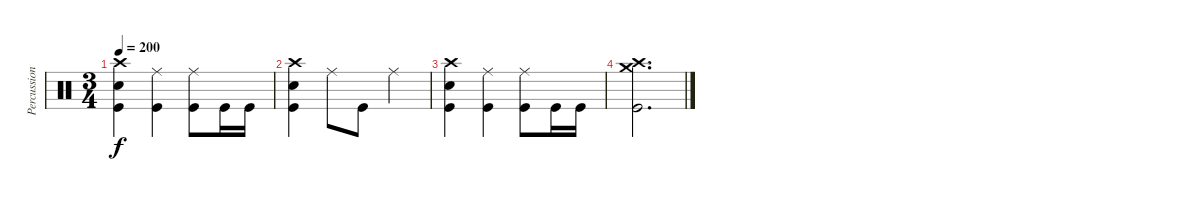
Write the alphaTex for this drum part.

\track ("Percussion" "Percussion") {instrument percussion}
\staff {score}
\articulation defaults
\ts (3 4)
\tempo 200
\clef neutral
\ks c
("Crash high (hit)" "Electric Snare (hit)" "Kick (hit)").4{dy f} ("Ride (middle)" "Kick (hit)").4 ("Ride (middle)" "Kick (hit)").8 "Kick (hit)".16 "Kick (hit)".16 |
("Crash high (hit)" "Electric Snare (hit)" "Kick (hit)").4 "Ride (middle)".8 "Kick (hit)".8 "Ride (middle)".4 |
("Crash high (hit)" "Electric Snare (hit)" "Kick (hit)").4 ("Ride (middle)" "Kick (hit)").4 ("Ride (middle)" "Kick (hit)").8 "Kick (hit)".16 "Kick (hit)".16 |
("Crash high (hit)" "Crash medium (hit)" "Kick (hit)").2{d}
